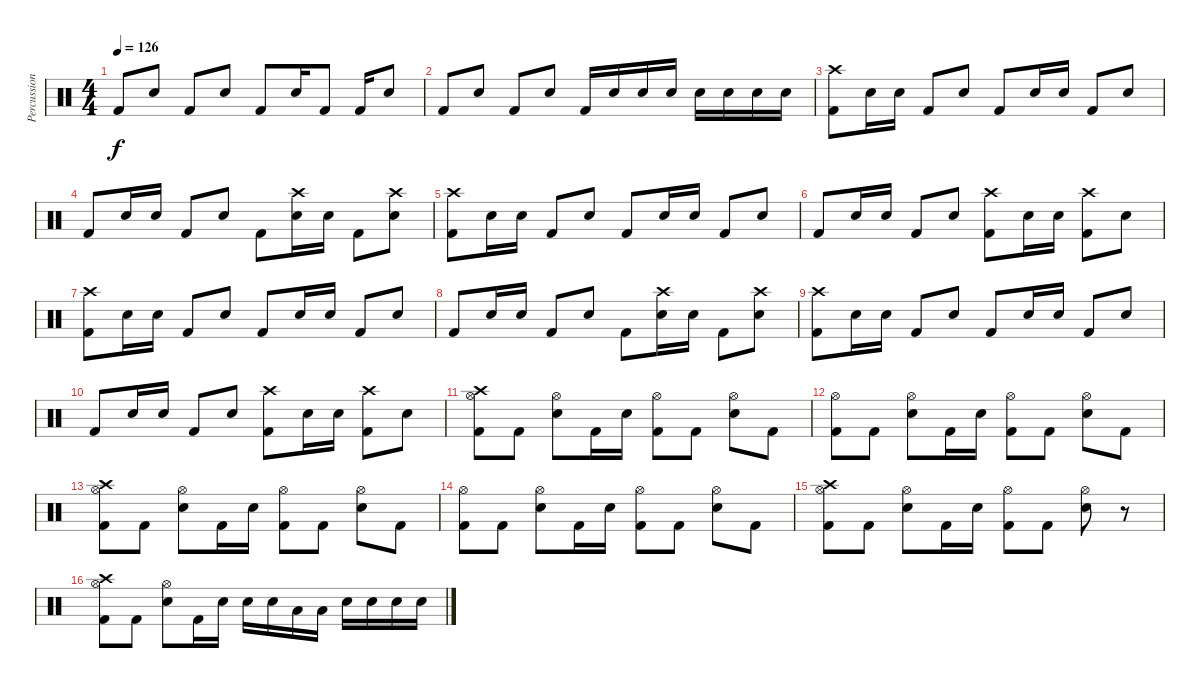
\track ("Percussion" "Percussion") {instrument percussion}
\staff {score}
\articulation defaults
\ts (4 4)
\tempo 126
\clef neutral
\ks c "Kick (hit) 2".8{dy f} "Electric Snare (hit)".8 "Kick (hit) 2".8 "Electric Snare (hit)".8 "Kick (hit) 2".8 "Electric Snare (hit)".16 "Kick (hit) 2".8 "Kick (hit) 2".16 "Electric Snare (hit)".8
|
"Kick (hit) 2".8 "Electric Snare (hit)".8 "Kick (hit) 2".8 "Electric Snare (hit)".8 "Kick (hit) 2".16 "Electric Snare (hit)".16 "Electric Snare (hit)".16 "Electric Snare (hit)".16 "Electric Snare (hit)".16 "Electric Snare (hit)".16 "Electric Snare (hit)".16 "Electric Snare (hit)".16 |
("Crash high (hit)" "Kick (hit) 2").8 "Electric Snare (hit)".16 "Electric Snare (hit)".16 "Kick (hit) 2".8 "Electric Snare (hit)".8 "Kick (hit) 2".8 "Electric Snare (hit)".16 "Electric Snare (hit)".16 "Kick (hit) 2".8 "Electric Snare (hit)".8 |
"Kick (hit) 2".8 "Electric Snare (hit)".16 "Electric Snare (hit)".16 "Kick (hit) 2".8 "Electric Snare (hit)".8 "Kick (hit) 2".8 ("Crash high (hit)" "Electric Snare (hit)").16 "Electric Snare (hit)".16 "Kick (hit) 2".8 ("Crash high (hit)" "Electric Snare (hit)").8 |
("Crash high (hit)" "Kick (hit) 2").8 "Electric Snare (hit)".16 "Electric Snare (hit)".16 "Kick (hit) 2".8 "Electric Snare (hit)".8 "Kick (hit) 2".8 "Electric Snare (hit)".16 "Electric Snare (hit)".16 "Kick (hit) 2".8 "Electric Snare (hit)".8 |
"Kick (hit) 2".8 "Electric Snare (hit)".16 "Electric Snare (hit)".16 "Kick (hit) 2".8 "Electric Snare (hit)".8 ("Crash high (hit)" "Kick (hit) 2").8 "Electric Snare (hit)".16 "Electric Snare (hit)".16 ("Crash high (hit)" "Kick (hit) 2").8 "Electric Snare (hit)".8 |
("Crash high (hit)" "Kick (hit) 2").8 "Electric Snare (hit)".16 "Electric Snare (hit)".16 "Kick (hit) 2".8 "Electric Snare (hit)".8 "Kick (hit) 2".8 "Electric Snare (hit)".16 "Electric Snare (hit)".16 "Kick (hit) 2".8 "Electric Snare (hit)".8 |
"Kick (hit) 2".8 "Electric Snare (hit)".16 "Electric Snare (hit)".16 "Kick (hit) 2".8 "Electric Snare (hit)".8 "Kick (hit) 2".8 ("Crash high (hit)" "Electric Snare (hit)").16 "Electric Snare (hit)".16 "Kick (hit) 2".8 ("Crash high (hit)" "Electric Snare (hit)").8 |
("Crash high (hit)" "Kick (hit) 2").8 "Electric Snare (hit)".16 "Electric Snare (hit)".16 "Kick (hit) 2".8 "Electric Snare (hit)".8 "Kick (hit) 2".8 "Electric Snare (hit)".16 "Electric Snare (hit)".16 "Kick (hit) 2".8 "Electric Snare (hit)".8 |
"Kick (hit) 2".8 "Electric Snare (hit)".16 "Electric Snare (hit)".16 "Kick (hit) 2".8 "Electric Snare (hit)".8 ("Crash high (hit)" "Kick (hit) 2").8 "Electric Snare (hit)".16 "Electric Snare (hit)".16 ("Crash high (hit)" "Kick (hit) 2").8 "Electric Snare (hit)".8 |
("Crash high (hit)" "Hi-Hat (open)" "Kick (hit) 2").8 "Kick (hit) 2".8 ("Hi-Hat (open)" "Electric Snare (hit)").8 "Kick (hit) 2".16 "Electric Snare (hit)".16 ("Hi-Hat (open)" "Kick (hit) 2").8 "Kick (hit) 2".8 ("Hi-Hat (open)" "Electric Snare (hit)").8 "Kick (hit) 2".8 |
("Hi-Hat (open)" "Kick (hit) 2").8 "Kick (hit) 2".8 ("Hi-Hat (open)" "Electric Snare (hit)").8 "Kick (hit) 2".16 "Electric Snare (hit)".16 ("Hi-Hat (open)" "Kick (hit) 2").8 "Kick (hit) 2".8 ("Hi-Hat (open)" "Electric Snare (hit)").8 "Kick (hit) 2".8 |
("Crash high (hit)" "Hi-Hat (open)" "Kick (hit) 2").8 "Kick (hit) 2".8 ("Hi-Hat (open)" "Electric Snare (hit)").8 "Kick (hit) 2".16 "Electric Snare (hit)".16 ("Hi-Hat (open)" "Kick (hit) 2").8 "Kick (hit) 2".8 ("Hi-Hat (open)" "Electric Snare (hit)").8 "Kick (hit) 2".8 |
("Hi-Hat (open)" "Kick (hit) 2").8 "Kick (hit) 2".8 ("Hi-Hat (open)" "Electric Snare (hit)").8 "Kick (hit) 2".16 "Electric Snare (hit)".16 ("Hi-Hat (open)" "Kick (hit) 2").8 "Kick (hit) 2".8 ("Hi-Hat (open)" "Electric Snare (hit)").8 "Kick (hit) 2".8 |
("Crash high (hit)" "Hi-Hat (open)" "Kick (hit) 2").8 "Kick (hit) 2".8 ("Hi-Hat (open)" "Electric Snare (hit)").8 "Kick (hit) 2".16 "Electric Snare (hit)".16 ("Hi-Hat (open)" "Kick (hit) 2").8 "Kick (hit) 2".8 ("Hi-Hat (open)" "Electric Snare (hit)").8 r.8 |
("Crash high (hit)" "Hi-Hat (open)" "Kick (hit) 2").8 "Kick (hit) 2".8 ("Hi-Hat (open)" "Electric Snare (hit)").8 "Kick (hit) 2".16 "Electric Snare (hit)".16 "Electric Snare (hit)".16 "Electric Snare (hit)".16 "Low Tom (hit)".16 "Low Tom (hit)".16 "Electric Snare (hit)".16 "Electric Snare (hit)".16 "Electric Snare (hit)".16 "Electric Snare (hit)".16
